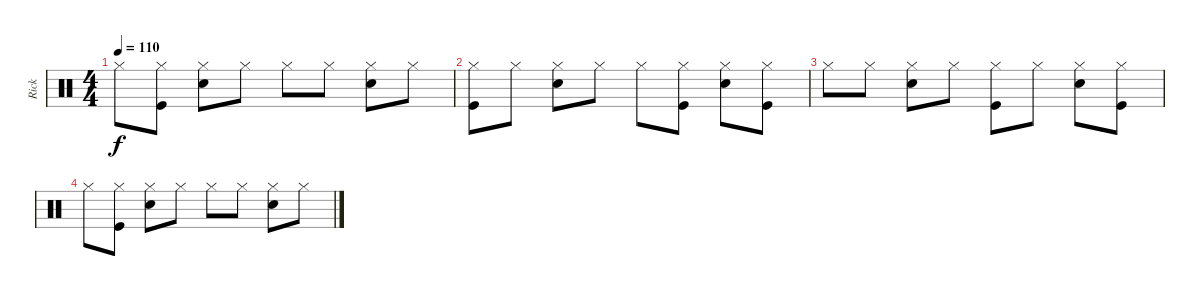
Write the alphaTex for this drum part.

\track ("Rick" "Rick") {instrument percussion}
\staff {score}
\articulation defaults
\ts (4 4)
\tempo 110
\clef neutral
\ks c "Hi-Hat (closed)".8{dy f}
("Hi-Hat (closed)" "Kick (hit)").8 ("Hi-Hat (closed)" "Snare (hit) 2").8 "Hi-Hat (closed)".8 "Hi-Hat (closed)".8 "Hi-Hat (closed)".8 ("Hi-Hat (closed)" "Snare (hit) 2").8 "Hi-Hat (closed)".8 |
("Hi-Hat (closed)" "Kick (hit)").8 "Hi-Hat (closed)".8 ("Hi-Hat (closed)" "Snare (hit) 2").8 "Hi-Hat (closed)".8 "Hi-Hat (closed)".8 ("Hi-Hat (closed)" "Kick (hit)").8 ("Hi-Hat (closed)" "Snare (hit) 2").8 ("Hi-Hat (closed)" "Kick (hit)").8 |
"Hi-Hat (closed)".8 "Hi-Hat (closed)".8 ("Hi-Hat (closed)" "Snare (hit) 2").8 "Hi-Hat (closed)".8 ("Hi-Hat (closed)" "Kick (hit)").8 "Hi-Hat (closed)".8 ("Hi-Hat (closed)" "Snare (hit) 2").8 ("Hi-Hat (closed)" "Kick (hit)").8 |
"Hi-Hat (closed)".8 ("Hi-Hat (closed)" "Kick (hit)").8 ("Hi-Hat (closed)" "Snare (hit) 2").8 "Hi-Hat (closed)".8 "Hi-Hat (closed)".8 "Hi-Hat (closed)".8 ("Hi-Hat (closed)" "Snare (hit) 2").8 "Hi-Hat (closed)".8
